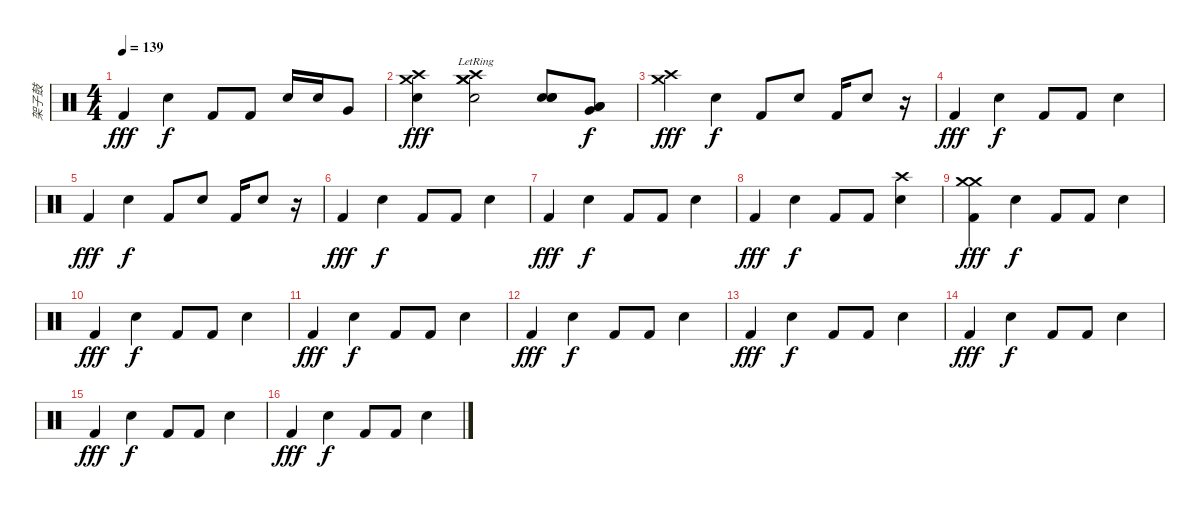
\track ("架子鼓" "架子鼓") {instrument percussion}
\staff {score}
\articulation defaults
\ts (4 4)
\tempo 139
\clef neutral
\ks c "Kick (hit) 2".4{dy fff} "Electric Snare (hit)".4{dy f} "Kick (hit) 2".8 "Kick (hit) 2".8 "Electric Snare (hit)".16 "Electric Snare (hit)".16 "Very Low Tom (hit)".8
|
("Crash high (hit)" "Crash medium (hit)" "Electric Snare (hit)").4{dy fff} ("Crash high (hit)"{lr} "Crash medium (hit)"{lr} "Crash medium (hit)"{lr} "Electric Snare (hit)").2 ("Electric Snare (hit)" "Electric Snare (hit)" "Electric Snare (hit)").8 ("Very Low Tom (hit)" "Low Tom (hit)" "Low Tom (hit)").8{dy f} |
("Crash high (hit)" "Crash medium (hit)").4{dy fff} "Electric Snare (hit)".4{dy f} "Kick (hit) 2".8 "Electric Snare (hit)".8 "Kick (hit) 2".16 "Electric Snare (hit)".8 r.16 |
"Kick (hit) 2".4{dy fff} "Electric Snare (hit)".4{dy f} "Kick (hit) 2".8 "Kick (hit) 2".8 "Electric Snare (hit)".4 |
"Kick (hit) 2".4{dy fff} "Electric Snare (hit)".4{dy f} "Kick (hit) 2".8 "Electric Snare (hit)".8 "Kick (hit) 2".16 "Electric Snare (hit)".8 r.16 |
"Kick (hit) 2".4{dy fff} "Electric Snare (hit)".4{dy f} "Kick (hit) 2".8 "Kick (hit) 2".8 "Electric Snare (hit)".4 |
"Kick (hit) 2".4{dy fff} "Electric Snare (hit)".4{dy f} "Kick (hit) 2".8 "Kick (hit) 2".8 "Electric Snare (hit)".4 |
"Kick (hit) 2".4{dy fff} "Electric Snare (hit)".4{dy f} "Kick (hit) 2".8 "Kick (hit) 2".8 ("Electric Snare (hit)" "Crash high (hit)").4 |
("Kick (hit) 2" "Crash medium (hit)" "Crash medium (hit)").4{dy fff} "Electric Snare (hit)".4{dy f} "Kick (hit) 2".8 "Kick (hit) 2".8 "Electric Snare (hit)".4 |
"Kick (hit) 2".4{dy fff} "Electric Snare (hit)".4{dy f} "Kick (hit) 2".8 "Kick (hit) 2".8 "Electric Snare (hit)".4 |
"Kick (hit) 2".4{dy fff} "Electric Snare (hit)".4{dy f} "Kick (hit) 2".8 "Kick (hit) 2".8 "Electric Snare (hit)".4 |
"Kick (hit) 2".4{dy fff} "Electric Snare (hit)".4{dy f} "Kick (hit) 2".8 "Kick (hit) 2".8 "Electric Snare (hit)".4 |
"Kick (hit) 2".4{dy fff} "Electric Snare (hit)".4{dy f} "Kick (hit) 2".8 "Kick (hit) 2".8 "Electric Snare (hit)".4 |
"Kick (hit) 2".4{dy fff} "Electric Snare (hit)".4{dy f} "Kick (hit) 2".8 "Kick (hit) 2".8 "Electric Snare (hit)".4 |
"Kick (hit) 2".4{dy fff} "Electric Snare (hit)".4{dy f} "Kick (hit) 2".8 "Kick (hit) 2".8 "Electric Snare (hit)".4 |
"Kick (hit) 2".4{dy fff} "Electric Snare (hit)".4{dy f} "Kick (hit) 2".8 "Kick (hit) 2".8 "Electric Snare (hit)".4
